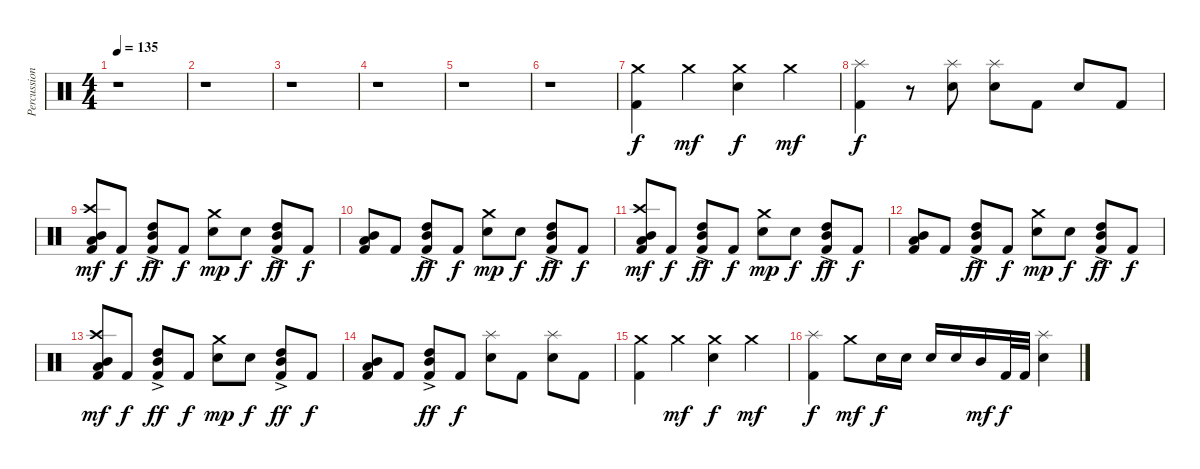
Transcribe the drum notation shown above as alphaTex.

\track ("Percussion" "Percussion") {instrument percussion}
\staff {score}
\articulation defaults
\ts (4 4)
\tempo 135
\clef neutral
\ks c
r.1{dy f} |
r.1 |
r.1 |
r.1 |
r.1 |
r.1 |
("Crash medium (hit)" "Kick (hit) 2").4 "Crash medium (hit)".4{dy mf} ("Crash medium (hit)" "Snare (hit) 2").4{dy f} "Crash medium (hit)".4{dy mf} |
("Splash (hit)" "Kick (hit) 2").4{dy f} r.8 ("Splash (hit)" "Snare (hit) 2").8 ("Splash (hit)" "Snare (hit) 2").8 "Kick (hit) 2".8 "Snare (hit) 2".8 "Kick (hit) 2".8 |
("Crash high (hit)" "Mid Tom (hit)" "Low Tom (hit)" "Kick (hit) 2").8{dy mf} "Kick (hit) 2".8{dy f} ("High Tom (hit)"{ac} "Mid Tom (hit)"{ac} "Kick (hit) 2").8{dy ff} "Kick (hit) 2".8{dy f} ("Crash medium (hit)" "Snare (hit) 2").8{dy mp} "Snare (hit) 2".8{dy f} ("High Tom (hit)"{ac} "Mid Tom (hit)"{ac} "Kick (hit) 2").8{dy ff} "Kick (hit) 2".8{dy f} |
("Mid Tom (hit)" "Low Tom (hit)" "Kick (hit) 2").8 "Kick (hit) 2".8 ("High Tom (hit)"{ac} "Mid Tom (hit)"{ac} "Kick (hit) 2").8{dy ff} "Kick (hit) 2".8{dy f} ("Crash medium (hit)" "Snare (hit) 2").8{dy mp} "Snare (hit) 2".8{dy f} ("High Tom (hit)"{ac} "Mid Tom (hit)"{ac} "Kick (hit) 2").8{dy ff} "Kick (hit) 2".8{dy f} |
("Crash high (hit)" "Mid Tom (hit)" "Low Tom (hit)" "Kick (hit) 2").8{dy mf} "Kick (hit) 2".8{dy f} ("High Tom (hit)"{ac} "Mid Tom (hit)"{ac} "Kick (hit) 2").8{dy ff} "Kick (hit) 2".8{dy f} ("Crash medium (hit)" "Snare (hit) 2").8{dy mp} "Snare (hit) 2".8{dy f} ("High Tom (hit)"{ac} "Mid Tom (hit)"{ac} "Kick (hit) 2").8{dy ff} "Kick (hit) 2".8{dy f} |
("Mid Tom (hit)" "Low Tom (hit)" "Kick (hit) 2").8 "Kick (hit) 2".8 ("High Tom (hit)"{ac} "Mid Tom (hit)"{ac} "Kick (hit) 2").8{dy ff} "Kick (hit) 2".8{dy f} ("Crash medium (hit)" "Snare (hit) 2").8{dy mp} "Snare (hit) 2".8{dy f} ("High Tom (hit)"{ac} "Mid Tom (hit)"{ac} "Kick (hit) 2").8{dy ff} "Kick (hit) 2".8{dy f} |
("Crash high (hit)" "Mid Tom (hit)" "Low Tom (hit)" "Kick (hit) 2").8{dy mf} "Kick (hit) 2".8{dy f} ("High Tom (hit)"{ac} "Mid Tom (hit)"{ac} "Kick (hit) 2").8{dy ff} "Kick (hit) 2".8{dy f} ("Crash medium (hit)" "Snare (hit) 2").8{dy mp} "Snare (hit) 2".8{dy f} ("High Tom (hit)"{ac} "Mid Tom (hit)"{ac} "Kick (hit) 2").8{dy ff} "Kick (hit) 2".8{dy f} |
("Mid Tom (hit)" "Low Tom (hit)" "Kick (hit) 2").8 "Kick (hit) 2".8 ("High Tom (hit)"{ac} "Mid Tom (hit)"{ac} "Kick (hit) 2").8{dy ff} "Kick (hit) 2".8{dy f} ("Splash (hit)" "Snare (hit) 2").8 "Kick (hit) 2".8 ("Splash (hit)" "Snare (hit) 2").8 "Kick (hit) 2".8 |
("Crash medium (hit)" "Kick (hit) 2").4 "Crash medium (hit)".4{dy mf} ("Crash medium (hit)" "Snare (hit) 2").4{dy f} "Crash medium (hit)".4{dy mf} |
("Splash (hit)" "Kick (hit) 2").4{dy f} "Crash medium (hit)".8{dy mf} "Snare (hit) 2".16{dy f} "Snare (hit) 2".16 "Snare (hit) 2".16 "Snare (hit) 2".16 "Mid Tom (hit)".16{dy mf} "Kick (hit) 2".32{dy f} "Kick (hit) 2".32 ("Splash (hit)" "Snare (hit) 2").4
